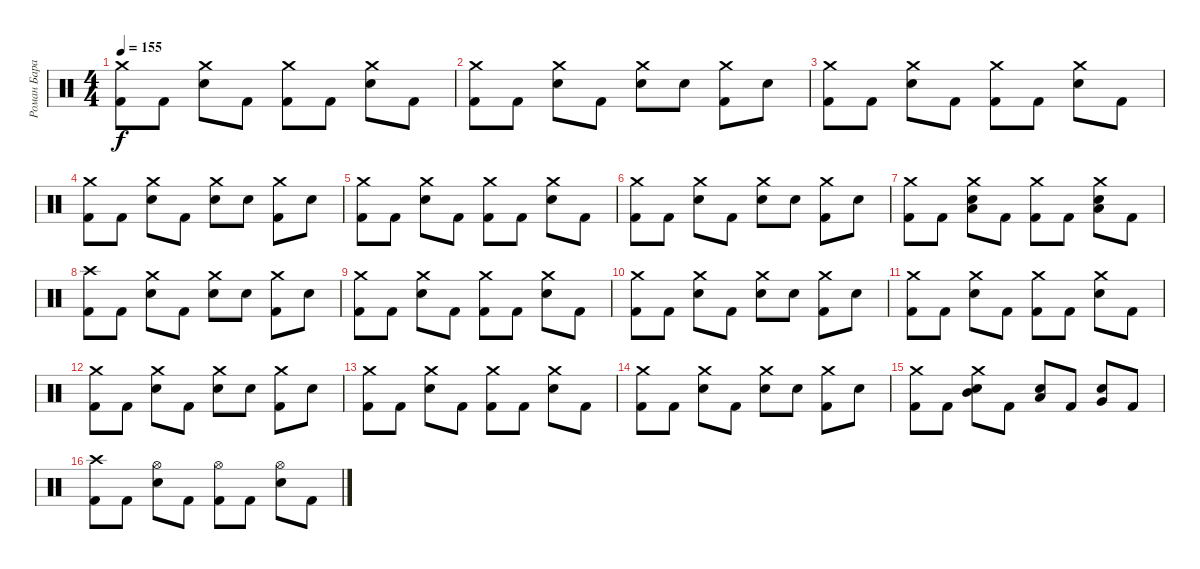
\track ("Роман Баранюк (Meinl, Vic Firth, Peace)" "Роман Бара") {instrument percussion}
\staff {score}
\articulation defaults
\ts (4 4)
\tempo 155
\clef neutral
\ks c
("Crash medium (hit)" "Kick (hit) 2").8{dy f} "Kick (hit) 2".8 ("Crash medium (hit)" "Snare (hit) 2").8 "Kick (hit) 2".8 ("Crash medium (hit)" "Kick (hit) 2").8 "Kick (hit) 2".8 ("Crash medium (hit)" "Snare (hit) 2").8 "Kick (hit) 2".8 |
("Crash medium (hit)" "Kick (hit) 2").8 "Kick (hit) 2".8 ("Crash medium (hit)" "Snare (hit) 2").8 "Kick (hit) 2".8 ("Crash medium (hit)" "Snare (hit) 2").8 "Snare (hit) 2".8 ("Crash medium (hit)" "Kick (hit) 2").8 "Snare (hit) 2".8 |
("Crash medium (hit)" "Kick (hit) 2").8 "Kick (hit) 2".8 ("Crash medium (hit)" "Snare (hit) 2").8 "Kick (hit) 2".8 ("Crash medium (hit)" "Kick (hit) 2").8 "Kick (hit) 2".8 ("Crash medium (hit)" "Snare (hit) 2").8 "Kick (hit) 2".8 |
("Crash medium (hit)" "Kick (hit) 2").8 "Kick (hit) 2".8 ("Crash medium (hit)" "Snare (hit) 2").8 "Kick (hit) 2".8 ("Crash medium (hit)" "Snare (hit) 2").8 "Snare (hit) 2".8 ("Crash medium (hit)" "Kick (hit) 2").8 "Snare (hit) 2".8 |
("Crash medium (hit)" "Kick (hit) 2").8 "Kick (hit) 2".8 ("Crash medium (hit)" "Snare (hit) 2").8 "Kick (hit) 2".8 ("Crash medium (hit)" "Kick (hit) 2").8 "Kick (hit) 2".8 ("Crash medium (hit)" "Snare (hit) 2").8 "Kick (hit) 2".8 |
("Crash medium (hit)" "Kick (hit) 2").8 "Kick (hit) 2".8 ("Crash medium (hit)" "Snare (hit) 2").8 "Kick (hit) 2".8 ("Crash medium (hit)" "Snare (hit) 2").8 "Snare (hit) 2".8 ("Crash medium (hit)" "Kick (hit) 2").8 "Snare (hit) 2".8 |
("Crash medium (hit)" "Kick (hit) 2").8 "Kick (hit) 2".8 ("Crash medium (hit)" "Snare (hit) 2" "Low Tom (hit)").8 "Kick (hit) 2".8 ("Crash medium (hit)" "Kick (hit) 2").8 "Kick (hit) 2".8 ("Crash medium (hit)" "Snare (hit) 2" "Low Tom (hit)").8 "Kick (hit) 2".8 |
("Crash high (hit)" "Kick (hit) 2").8 "Kick (hit) 2".8 ("Crash medium (hit)" "Snare (hit) 2").8 "Kick (hit) 2".8 ("Crash medium (hit)" "Snare (hit) 2").8 "Snare (hit) 2".8 ("Crash medium (hit)" "Kick (hit) 2").8 "Snare (hit) 2".8 |
("Crash medium (hit)" "Kick (hit) 2").8 "Kick (hit) 2".8 ("Crash medium (hit)" "Snare (hit) 2").8 "Kick (hit) 2".8 ("Crash medium (hit)" "Kick (hit) 2").8 "Kick (hit) 2".8 ("Crash medium (hit)" "Snare (hit) 2").8 "Kick (hit) 2".8 |
("Crash medium (hit)" "Kick (hit) 2").8 "Kick (hit) 2".8 ("Crash medium (hit)" "Snare (hit) 2").8 "Kick (hit) 2".8 ("Crash medium (hit)" "Snare (hit) 2").8 "Snare (hit) 2".8 ("Crash medium (hit)" "Kick (hit) 2").8 "Snare (hit) 2".8 |
("Crash medium (hit)" "Kick (hit) 2").8 "Kick (hit) 2".8 ("Crash medium (hit)" "Snare (hit) 2").8 "Kick (hit) 2".8 ("Crash medium (hit)" "Kick (hit) 2").8 "Kick (hit) 2".8 ("Crash medium (hit)" "Snare (hit) 2").8 "Kick (hit) 2".8 |
("Crash medium (hit)" "Kick (hit) 2").8 "Kick (hit) 2".8 ("Crash medium (hit)" "Snare (hit) 2").8 "Kick (hit) 2".8 ("Crash medium (hit)" "Snare (hit) 2").8 "Snare (hit) 2".8 ("Crash medium (hit)" "Kick (hit) 2").8 "Snare (hit) 2".8 |
("Crash medium (hit)" "Kick (hit) 2").8 "Kick (hit) 2".8 ("Crash medium (hit)" "Snare (hit) 2").8 "Kick (hit) 2".8 ("Crash medium (hit)" "Kick (hit) 2").8 "Kick (hit) 2".8 ("Crash medium (hit)" "Snare (hit) 2").8 "Kick (hit) 2".8 |
("Crash medium (hit)" "Kick (hit) 2").8 "Kick (hit) 2".8 ("Crash medium (hit)" "Snare (hit) 2").8 "Kick (hit) 2".8 ("Crash medium (hit)" "Snare (hit) 2").8 "Snare (hit) 2".8 ("Crash medium (hit)" "Kick (hit) 2").8 "Snare (hit) 2".8 |
("Crash medium (hit)" "Kick (hit) 2").8 "Kick (hit) 2".8 ("Crash medium (hit)" "Snare (hit) 2" "Mid Tom (hit)").8 "Kick (hit) 2".8 ("Snare (hit) 2" "Low Tom (hit)").8 "Kick (hit) 2".8 ("Snare (hit) 2" "Very Low Tom (hit)").8 "Kick (hit) 2".8 |
("Crash high (hit)" "Kick (hit) 2").8 "Kick (hit) 2".8 ("Hi-Hat (open)" "Snare (hit) 2").8 "Kick (hit) 2".8 ("Hi-Hat (open)" "Kick (hit) 2").8 "Kick (hit) 2".8 ("Hi-Hat (open)" "Snare (hit) 2").8 "Kick (hit) 2".8
